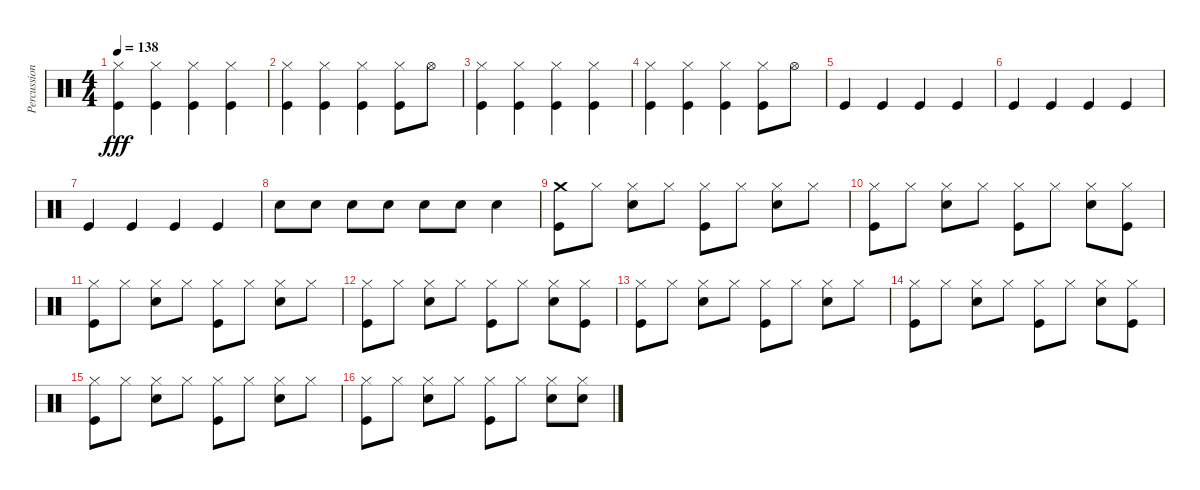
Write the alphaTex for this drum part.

\track ("Percussions" "Percussion") {instrument percussion}
\staff {score}
\articulation defaults
\ts (4 4)
\tempo 138
\clef neutral
\ks c
("Hi-Hat (closed)" "Kick (hit)").4{dy fff} ("Hi-Hat (closed)" "Kick (hit)").4 ("Hi-Hat (closed)" "Kick (hit)").4 ("Hi-Hat (closed)" "Kick (hit)").4 |
("Hi-Hat (closed)" "Kick (hit)").4 ("Hi-Hat (closed)" "Kick (hit)").4 ("Hi-Hat (closed)" "Kick (hit)").4 ("Hi-Hat (closed)" "Kick (hit)").8 "Hi-Hat (open)".8 |
("Hi-Hat (closed)" "Kick (hit)").4 ("Hi-Hat (closed)" "Kick (hit)").4 ("Hi-Hat (closed)" "Kick (hit)").4 ("Hi-Hat (closed)" "Kick (hit)").4 |
("Hi-Hat (closed)" "Kick (hit)").4 ("Hi-Hat (closed)" "Kick (hit)").4 ("Hi-Hat (closed)" "Kick (hit)").4 ("Hi-Hat (closed)" "Kick (hit)").8 "Hi-Hat (open)".8 |
"Kick (hit)".4 "Kick (hit)".4 "Kick (hit)".4 "Kick (hit)".4 |
"Kick (hit)".4 "Kick (hit)".4 "Kick (hit)".4 "Kick (hit)".4 |
"Kick (hit)".4 "Kick (hit)".4 "Kick (hit)".4 "Kick (hit)".4 |
"Snare (hit) 2".8 "Snare (hit) 2".8 "Snare (hit) 2".8 "Snare (hit) 2".8 "Snare (hit) 2".8 "Snare (hit) 2".8 "Snare (hit) 2".4 |
("Crash medium (hit)" "Kick (hit)").8 "Hi-Hat (closed)".8 ("Hi-Hat (closed)" "Snare (hit) 2").8 "Hi-Hat (closed)".8 ("Hi-Hat (closed)" "Kick (hit)").8 "Hi-Hat (closed)".8 ("Hi-Hat (closed)" "Snare (hit) 2").8 "Hi-Hat (closed)".8 |
("Hi-Hat (closed)" "Kick (hit)").8 "Hi-Hat (closed)".8 ("Hi-Hat (closed)" "Snare (hit) 2").8 "Hi-Hat (closed)".8 ("Hi-Hat (closed)" "Kick (hit)").8 "Hi-Hat (closed)".8 ("Hi-Hat (closed)" "Snare (hit) 2").8 ("Hi-Hat (closed)" "Kick (hit)").8 |
("Hi-Hat (closed)" "Kick (hit)").8 "Hi-Hat (closed)".8 ("Hi-Hat (closed)" "Snare (hit) 2").8 "Hi-Hat (closed)".8 ("Hi-Hat (closed)" "Kick (hit)").8 "Hi-Hat (closed)".8 ("Hi-Hat (closed)" "Snare (hit) 2").8 "Hi-Hat (closed)".8 |
("Hi-Hat (closed)" "Kick (hit)").8 "Hi-Hat (closed)".8 ("Hi-Hat (closed)" "Snare (hit) 2").8 "Hi-Hat (closed)".8 ("Hi-Hat (closed)" "Kick (hit)").8 "Hi-Hat (closed)".8 ("Hi-Hat (closed)" "Snare (hit) 2").8 ("Hi-Hat (closed)" "Kick (hit)").8 |
("Hi-Hat (closed)" "Kick (hit)").8 "Hi-Hat (closed)".8 ("Hi-Hat (closed)" "Snare (hit) 2").8 "Hi-Hat (closed)".8 ("Hi-Hat (closed)" "Kick (hit)").8 "Hi-Hat (closed)".8 ("Hi-Hat (closed)" "Snare (hit) 2").8 "Hi-Hat (closed)".8 |
("Hi-Hat (closed)" "Kick (hit)").8 "Hi-Hat (closed)".8 ("Hi-Hat (closed)" "Snare (hit) 2").8 "Hi-Hat (closed)".8 ("Hi-Hat (closed)" "Kick (hit)").8 "Hi-Hat (closed)".8 ("Hi-Hat (closed)" "Snare (hit) 2").8 ("Hi-Hat (closed)" "Kick (hit)").8 |
("Hi-Hat (closed)" "Kick (hit)").8 "Hi-Hat (closed)".8 ("Hi-Hat (closed)" "Snare (hit) 2").8 "Hi-Hat (closed)".8 ("Hi-Hat (closed)" "Kick (hit)").8 "Hi-Hat (closed)".8 ("Hi-Hat (closed)" "Snare (hit) 2").8 "Hi-Hat (closed)".8 |
("Hi-Hat (closed)" "Kick (hit)").8 "Hi-Hat (closed)".8 ("Hi-Hat (closed)" "Snare (hit) 2").8 "Hi-Hat (closed)".8 ("Hi-Hat (closed)" "Kick (hit)").8 "Hi-Hat (closed)".8 ("Hi-Hat (closed)" "Snare (hit) 2").8 ("Hi-Hat (closed)" "Snare (hit) 2").8
